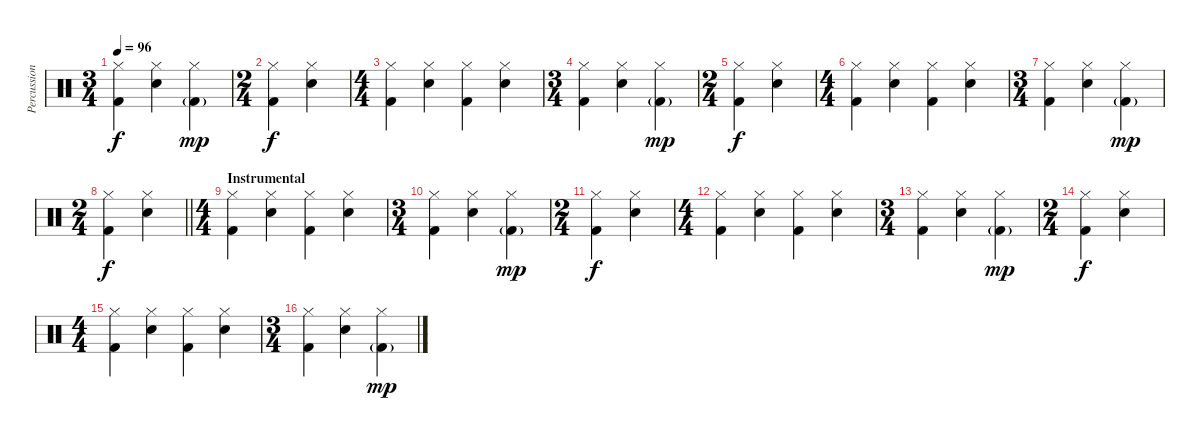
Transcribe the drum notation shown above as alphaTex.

\track ("Percussion" "Percussion") {instrument percussion}
\staff {score}
\articulation defaults
\ts (3 4)
\tempo 96
\clef neutral
\ks c
("Hi-Hat (closed)" "Kick (hit) 2").4{dy f} ("Hi-Hat (closed)" "Snare (hit) 2").4 ("Hi-Hat (closed)" "Kick (hit) 2"{g}).4{dy mp} |
\ts (2 4)
("Hi-Hat (closed)" "Kick (hit) 2").4{dy f} ("Hi-Hat (closed)" "Snare (hit) 2").4 |
\ts (4 4)
("Hi-Hat (closed)" "Kick (hit) 2").4 ("Hi-Hat (closed)" "Snare (hit) 2").4 ("Hi-Hat (closed)" "Kick (hit) 2").4 ("Hi-Hat (closed)" "Snare (hit) 2").4 |
\ts (3 4)
("Hi-Hat (closed)" "Kick (hit) 2").4 ("Hi-Hat (closed)" "Snare (hit) 2").4 ("Hi-Hat (closed)" "Kick (hit) 2"{g}).4{dy mp} |
\ts (2 4)
("Hi-Hat (closed)" "Kick (hit) 2").4{dy f} ("Hi-Hat (closed)" "Snare (hit) 2").4 |
\ts (4 4)
("Hi-Hat (closed)" "Kick (hit) 2").4 ("Hi-Hat (closed)" "Snare (hit) 2").4 ("Hi-Hat (closed)" "Kick (hit) 2").4 ("Hi-Hat (closed)" "Snare (hit) 2").4 |
\ts (3 4)
("Hi-Hat (closed)" "Kick (hit) 2").4 ("Hi-Hat (closed)" "Snare (hit) 2").4 ("Hi-Hat (closed)" "Kick (hit) 2"{g}).4{dy mp} |
\ts (2 4)
\barLineRight lightlight
("Hi-Hat (closed)" "Kick (hit) 2").4{dy f} ("Hi-Hat (closed)" "Snare (hit) 2").4 |
\ts (4 4)
\section ("" "Instrumental")
("Hi-Hat (closed)" "Kick (hit) 2").4 ("Hi-Hat (closed)" "Snare (hit) 2").4 ("Hi-Hat (closed)" "Kick (hit) 2").4 ("Hi-Hat (closed)" "Snare (hit) 2").4 |
\ts (3 4)
("Hi-Hat (closed)" "Kick (hit) 2").4 ("Hi-Hat (closed)" "Snare (hit) 2").4 ("Hi-Hat (closed)" "Kick (hit) 2"{g}).4{dy mp} |
\ts (2 4)
("Hi-Hat (closed)" "Kick (hit) 2").4{dy f} ("Hi-Hat (closed)" "Snare (hit) 2").4 |
\ts (4 4)
("Hi-Hat (closed)" "Kick (hit) 2").4 ("Hi-Hat (closed)" "Snare (hit) 2").4 ("Hi-Hat (closed)" "Kick (hit) 2").4 ("Hi-Hat (closed)" "Snare (hit) 2").4 |
\ts (3 4)
("Hi-Hat (closed)" "Kick (hit) 2").4 ("Hi-Hat (closed)" "Snare (hit) 2").4 ("Hi-Hat (closed)" "Kick (hit) 2"{g}).4{dy mp} |
\ts (2 4)
("Hi-Hat (closed)" "Kick (hit) 2").4{dy f} ("Hi-Hat (closed)" "Snare (hit) 2").4 |
\ts (4 4)
("Hi-Hat (closed)" "Kick (hit) 2").4 ("Hi-Hat (closed)" "Snare (hit) 2").4 ("Hi-Hat (closed)" "Kick (hit) 2").4 ("Hi-Hat (closed)" "Snare (hit) 2").4 |
\ts (3 4)
("Hi-Hat (closed)" "Kick (hit) 2").4 ("Hi-Hat (closed)" "Snare (hit) 2").4 ("Hi-Hat (closed)" "Kick (hit) 2"{g}).4{dy mp}
